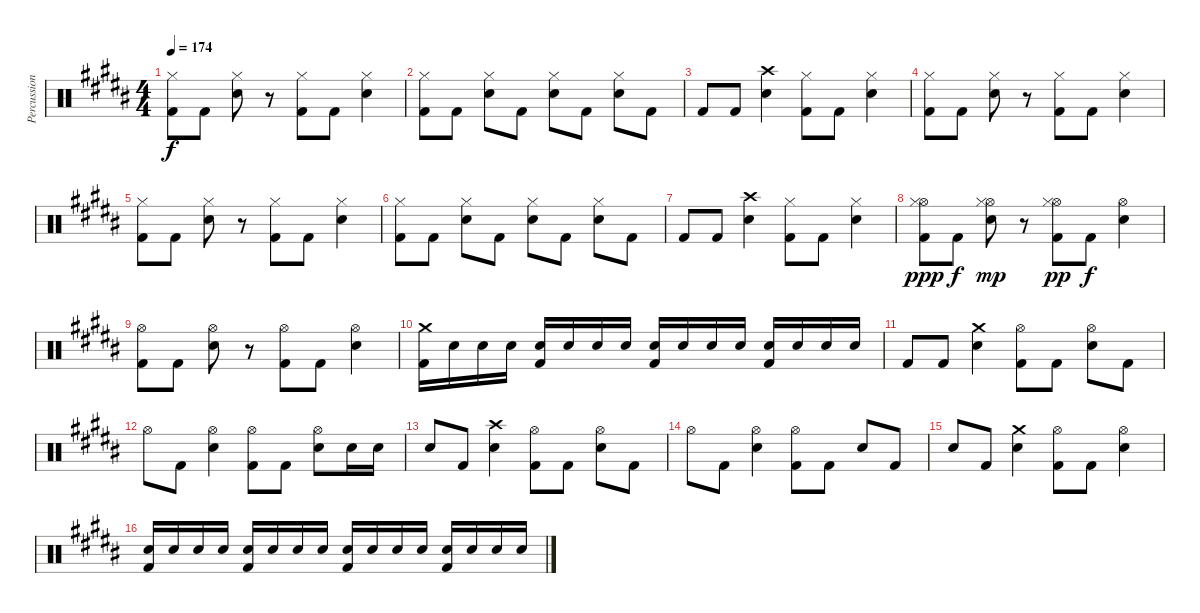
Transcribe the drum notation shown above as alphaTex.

\track ("Percussion" "Percussion") {instrument percussion}
\staff {score}
\articulation defaults
\ts (4 4)
\tempo 174
\clef neutral
\ks b
("Hi-Hat (closed)" "Kick (hit) 2").8{dy f} "Kick (hit) 2".8 ("Hi-Hat (closed)" "Electric Snare (hit)").8 r.8 ("Hi-Hat (closed)" "Kick (hit) 2").8 "Kick (hit) 2".8 ("Hi-Hat (closed)" "Electric Snare (hit)").4 |
("Hi-Hat (closed)" "Kick (hit) 2").8 "Kick (hit) 2".8 ("Hi-Hat (closed)" "Electric Snare (hit)").8 "Kick (hit) 2".8 ("Hi-Hat (closed)" "Electric Snare (hit)").8 "Kick (hit) 2".8 ("Hi-Hat (closed)" "Electric Snare (hit)").8 "Kick (hit) 2".8 |
"Kick (hit) 2".8 "Kick (hit) 2".8 ("Crash high (hit)" "Electric Snare (hit)").4 ("Hi-Hat (closed)" "Kick (hit) 2").8 "Kick (hit) 2".8 ("Hi-Hat (closed)" "Electric Snare (hit)").4 |
("Hi-Hat (closed)" "Kick (hit) 2").8 "Kick (hit) 2".8 ("Hi-Hat (closed)" "Electric Snare (hit)").8 r.8 ("Hi-Hat (closed)" "Kick (hit) 2").8 "Kick (hit) 2".8 ("Hi-Hat (closed)" "Electric Snare (hit)").4 |
("Hi-Hat (closed)" "Kick (hit) 2").8 "Kick (hit) 2".8 ("Hi-Hat (closed)" "Electric Snare (hit)").8 r.8 ("Hi-Hat (closed)" "Kick (hit) 2").8 "Kick (hit) 2".8 ("Hi-Hat (closed)" "Electric Snare (hit)").4 |
("Hi-Hat (closed)" "Kick (hit) 2").8 "Kick (hit) 2".8 ("Hi-Hat (closed)" "Electric Snare (hit)").8 "Kick (hit) 2".8 ("Hi-Hat (closed)" "Electric Snare (hit)").8 "Kick (hit) 2".8 ("Hi-Hat (closed)" "Electric Snare (hit)").8 "Kick (hit) 2".8 |
"Kick (hit) 2".8 "Kick (hit) 2".8 ("Crash high (hit)" "Electric Snare (hit)").4 ("Hi-Hat (closed)" "Kick (hit) 2").8 "Kick (hit) 2".8 ("Hi-Hat (closed)" "Electric Snare (hit)").4 |
("Hi-Hat (open)" "Hi-Hat (closed)" "Kick (hit) 2").8{dy ppp} "Kick (hit) 2".8{dy f} ("Hi-Hat (open)" "Hi-Hat (closed)" "Electric Snare (hit)").8{dy mp} r.8 ("Hi-Hat (open)" "Hi-Hat (closed)" "Kick (hit) 2").8{dy pp} "Kick (hit) 2".8{dy f} ("Hi-Hat (open)" "Electric Snare (hit)").4 |
("Hi-Hat (open)" "Kick (hit) 2").8 "Kick (hit) 2".8 ("Hi-Hat (open)" "Electric Snare (hit)").8 r.8 ("Hi-Hat (open)" "Kick (hit) 2").8 "Kick (hit) 2".8 ("Hi-Hat (open)" "Electric Snare (hit)").4 |
("Crash medium (hit)" "Kick (hit) 2").16 "Electric Snare (hit)".16 "Electric Snare (hit)".16 "Electric Snare (hit)".16 ("Electric Snare (hit)" "Kick (hit) 2").16 "Electric Snare (hit)".16 "Electric Snare (hit)".16 "Electric Snare (hit)".16 ("Electric Snare (hit)" "Kick (hit) 2").16 "Electric Snare (hit)".16 "Electric Snare (hit)".16 "Electric Snare (hit)".16 ("Electric Snare (hit)" "Kick (hit) 2").16 "Electric Snare (hit)".16 "Electric Snare (hit)".16 "Electric Snare (hit)".16 |
"Kick (hit) 2".8 "Kick (hit) 2".8 ("Crash medium (hit)" "Electric Snare (hit)").4 ("Hi-Hat (open)" "Kick (hit) 2").8 "Kick (hit) 2".8 ("Hi-Hat (open)" "Electric Snare (hit)").8 "Kick (hit) 2".8 |
"Hi-Hat (open)".8 "Kick (hit) 2".8 ("Hi-Hat (open)" "Electric Snare (hit)").4 ("Hi-Hat (open)" "Kick (hit) 2").8 "Kick (hit) 2".8 ("Hi-Hat (open)" "Electric Snare (hit)").8 "Electric Snare (hit)".16 "Electric Snare (hit)".16 |
"Electric Snare (hit)".8 "Kick (hit) 2".8 ("Crash high (hit)" "Electric Snare (hit)").4 ("Hi-Hat (open)" "Kick (hit) 2").8 "Kick (hit) 2".8 ("Hi-Hat (open)" "Electric Snare (hit)").8 "Kick (hit) 2".8 |
"Hi-Hat (open)".8 "Kick (hit) 2".8 ("Hi-Hat (open)" "Electric Snare (hit)").4 ("Hi-Hat (open)" "Kick (hit) 2").8 "Kick (hit) 2".8 "Electric Snare (hit)".8 "Kick (hit) 2".8 |
"Electric Snare (hit)".8 "Kick (hit) 2".8 ("Crash medium (hit)" "Electric Snare (hit)").4 ("Hi-Hat (open)" "Kick (hit) 2").8 "Kick (hit) 2".8 ("Hi-Hat (open)" "Electric Snare (hit)").4 |
("Electric Snare (hit)" "Kick (hit) 2").16 "Electric Snare (hit)".16 "Electric Snare (hit)".16 "Electric Snare (hit)".16 ("Electric Snare (hit)" "Kick (hit) 2").16 "Electric Snare (hit)".16 "Electric Snare (hit)".16 "Electric Snare (hit)".16 ("Electric Snare (hit)" "Kick (hit) 2").16 "Electric Snare (hit)".16 "Electric Snare (hit)".16 "Electric Snare (hit)".16 ("Electric Snare (hit)" "Kick (hit) 2").16 "Electric Snare (hit)".16 "Electric Snare (hit)".16 "Electric Snare (hit)".16
